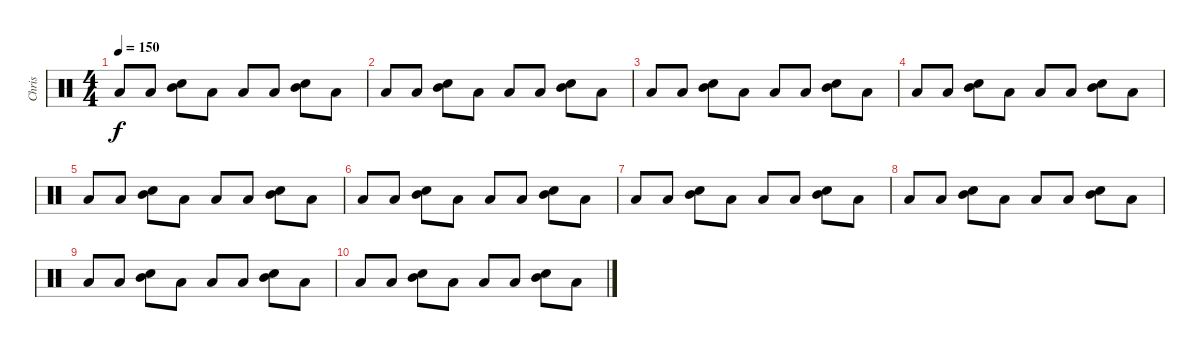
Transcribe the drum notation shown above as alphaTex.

\track ("Chris" "Chris") {instrument percussion}
\staff {score}
\articulation defaults
\ts (4 4)
\tempo 150
\clef neutral
\ks c "Low Tom (hit)".8{dy f} "Low Tom (hit)".8
("Mid Tom (hit)" "Snare (hit) 2").8 "Low Tom (hit)".8 "Low Tom (hit)".8 "Low Tom (hit)".8 ("Mid Tom (hit)" "Snare (hit) 2").8 "Low Tom (hit)".8 |
"Low Tom (hit)".8 "Low Tom (hit)".8 ("Mid Tom (hit)" "Snare (hit) 2").8 "Low Tom (hit)".8 "Low Tom (hit)".8 "Low Tom (hit)".8 ("Mid Tom (hit)" "Snare (hit) 2").8 "Low Tom (hit)".8 |
"Low Tom (hit)".8 "Low Tom (hit)".8 ("Mid Tom (hit)" "Snare (hit) 2").8 "Low Tom (hit)".8 "Low Tom (hit)".8 "Low Tom (hit)".8 ("Mid Tom (hit)" "Snare (hit) 2").8 "Low Tom (hit)".8 |
"Low Tom (hit)".8 "Low Tom (hit)".8 ("Mid Tom (hit)" "Snare (hit) 2").8 "Low Tom (hit)".8 "Low Tom (hit)".8 "Low Tom (hit)".8 ("Mid Tom (hit)" "Snare (hit) 2").8 "Low Tom (hit)".8 |
"Low Tom (hit)".8 "Low Tom (hit)".8 ("Mid Tom (hit)" "Snare (hit) 2").8 "Low Tom (hit)".8 "Low Tom (hit)".8 "Low Tom (hit)".8 ("Mid Tom (hit)" "Snare (hit) 2").8 "Low Tom (hit)".8 |
"Low Tom (hit)".8 "Low Tom (hit)".8 ("Mid Tom (hit)" "Snare (hit) 2").8 "Low Tom (hit)".8 "Low Tom (hit)".8 "Low Tom (hit)".8 ("Mid Tom (hit)" "Snare (hit) 2").8 "Low Tom (hit)".8 |
"Low Tom (hit)".8 "Low Tom (hit)".8 ("Mid Tom (hit)" "Snare (hit) 2").8 "Low Tom (hit)".8 "Low Tom (hit)".8 "Low Tom (hit)".8 ("Mid Tom (hit)" "Snare (hit) 2").8 "Low Tom (hit)".8 |
"Low Tom (hit)".8 "Low Tom (hit)".8 ("Mid Tom (hit)" "Snare (hit) 2").8 "Low Tom (hit)".8 "Low Tom (hit)".8 "Low Tom (hit)".8 ("Mid Tom (hit)" "Snare (hit) 2").8 "Low Tom (hit)".8 |
"Low Tom (hit)".8 "Low Tom (hit)".8 ("Mid Tom (hit)" "Snare (hit) 2").8 "Low Tom (hit)".8 "Low Tom (hit)".8 "Low Tom (hit)".8 ("Mid Tom (hit)" "Snare (hit) 2").8 "Low Tom (hit)".8 |
"Low Tom (hit)".8 "Low Tom (hit)".8 ("Mid Tom (hit)" "Snare (hit) 2").8 "Low Tom (hit)".8 "Low Tom (hit)".8 "Low Tom (hit)".8 ("Mid Tom (hit)" "Snare (hit) 2").8 "Low Tom (hit)".8
